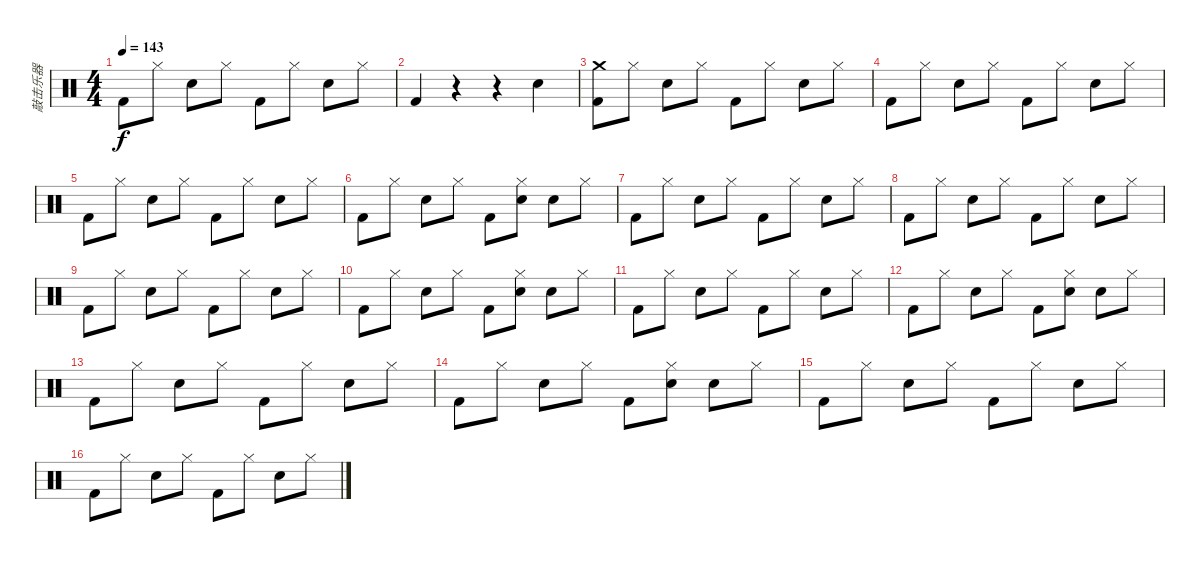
\track ("敲击乐器" "敲击乐器") {instrument percussion}
\staff {score}
\articulation defaults
\ts (4 4)
\tempo 143
\clef neutral
\ks c "Kick (hit) 2".8{dy f} "Hi-Hat (closed)".8 "Snare (hit) 2".8 "Hi-Hat (closed)".8 "Kick (hit) 2".8 "Hi-Hat (closed)".8 "Snare (hit) 2".8 "Hi-Hat (closed)".8
|
"Kick (hit) 2".4 r.4 r.4 "Snare (hit) 2".4 |
("Crash medium (hit)" "Kick (hit) 2").8 "Hi-Hat (closed)".8 "Snare (hit) 2".8 "Hi-Hat (closed)".8 "Kick (hit) 2".8 "Hi-Hat (closed)".8 "Snare (hit) 2".8 "Hi-Hat (closed)".8 |
"Kick (hit) 2".8 "Hi-Hat (closed)".8 "Snare (hit) 2".8 "Hi-Hat (closed)".8 "Kick (hit) 2".8 "Hi-Hat (closed)".8 "Snare (hit) 2".8 "Hi-Hat (closed)".8 |
"Kick (hit) 2".8 "Hi-Hat (closed)".8 "Snare (hit) 2".8 "Hi-Hat (closed)".8 "Kick (hit) 2".8 "Hi-Hat (closed)".8 "Snare (hit) 2".8 "Hi-Hat (closed)".8 |
"Kick (hit) 2".8 "Hi-Hat (closed)".8 "Snare (hit) 2".8 "Hi-Hat (closed)".8 "Kick (hit) 2".8 ("Hi-Hat (closed)" "Snare (hit) 2").8 "Snare (hit) 2".8 "Hi-Hat (closed)".8 |
"Kick (hit) 2".8 "Hi-Hat (closed)".8 "Snare (hit) 2".8 "Hi-Hat (closed)".8 "Kick (hit) 2".8 "Hi-Hat (closed)".8 "Snare (hit) 2".8 "Hi-Hat (closed)".8 |
"Kick (hit) 2".8 "Hi-Hat (closed)".8 "Snare (hit) 2".8 "Hi-Hat (closed)".8 "Kick (hit) 2".8 "Hi-Hat (closed)".8 "Snare (hit) 2".8 "Hi-Hat (closed)".8 |
"Kick (hit) 2".8 "Hi-Hat (closed)".8 "Snare (hit) 2".8 "Hi-Hat (closed)".8 "Kick (hit) 2".8 "Hi-Hat (closed)".8 "Snare (hit) 2".8 "Hi-Hat (closed)".8 |
"Kick (hit) 2".8 "Hi-Hat (closed)".8 "Snare (hit) 2".8 "Hi-Hat (closed)".8 "Kick (hit) 2".8 ("Hi-Hat (closed)" "Snare (hit) 2").8 "Snare (hit) 2".8 "Hi-Hat (closed)".8 |
"Kick (hit) 2".8 "Hi-Hat (closed)".8 "Snare (hit) 2".8 "Hi-Hat (closed)".8 "Kick (hit) 2".8 "Hi-Hat (closed)".8 "Snare (hit) 2".8 "Hi-Hat (closed)".8 |
"Kick (hit) 2".8 "Hi-Hat (closed)".8 "Snare (hit) 2".8 "Hi-Hat (closed)".8 "Kick (hit) 2".8 ("Hi-Hat (closed)" "Snare (hit) 2").8 "Snare (hit) 2".8 "Hi-Hat (closed)".8 |
"Kick (hit) 2".8 "Hi-Hat (closed)".8 "Snare (hit) 2".8 "Hi-Hat (closed)".8 "Kick (hit) 2".8 "Hi-Hat (closed)".8 "Snare (hit) 2".8 "Hi-Hat (closed)".8 |
"Kick (hit) 2".8 "Hi-Hat (closed)".8 "Snare (hit) 2".8 "Hi-Hat (closed)".8 "Kick (hit) 2".8 ("Hi-Hat (closed)" "Snare (hit) 2").8 "Snare (hit) 2".8 "Hi-Hat (closed)".8 |
"Kick (hit) 2".8 "Hi-Hat (closed)".8 "Snare (hit) 2".8 "Hi-Hat (closed)".8 "Kick (hit) 2".8 "Hi-Hat (closed)".8 "Snare (hit) 2".8 "Hi-Hat (closed)".8 |
"Kick (hit) 2".8 "Hi-Hat (closed)".8 "Snare (hit) 2".8 "Hi-Hat (closed)".8 "Kick (hit) 2".8 "Hi-Hat (closed)".8 "Snare (hit) 2".8 "Hi-Hat (closed)".8
